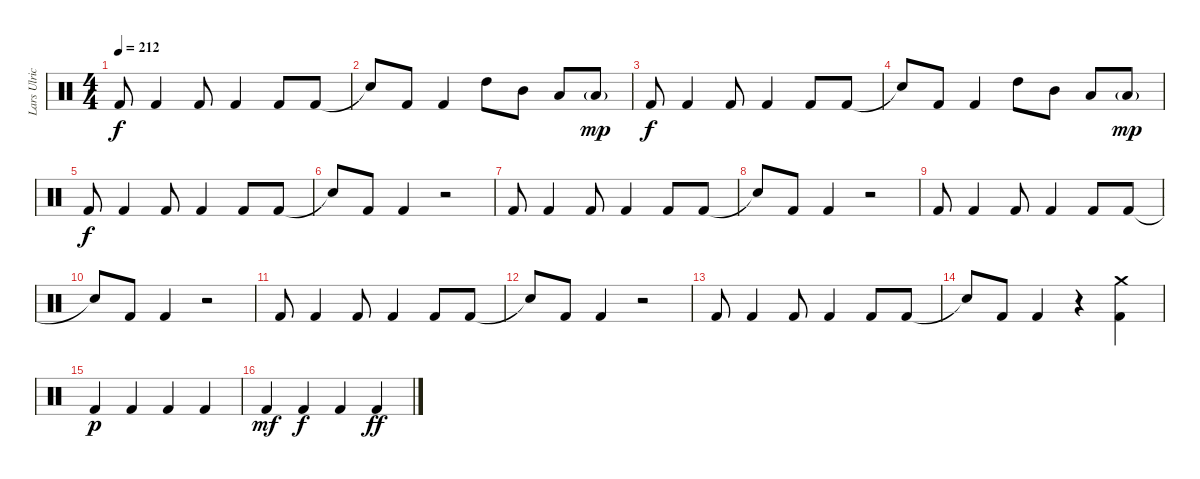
\track ("Lars Ulrich" "Lars Ulric") {instrument percussion}
\staff {score}
\articulation defaults
\ts (4 4)
\tempo 212
\clef neutral
\ks c "Kick (hit) 2".8{dy f} "Kick (hit) 2".4 "Kick (hit) 2".8 "Kick (hit) 2".4 "Kick (hit) 2".8 "Kick (hit) 2".8
|
"Snare (hit)"{t}.8 "Kick (hit) 2".8 "Kick (hit) 2".4 "High Tom (hit)".8 "Mid Tom (hit)".8 "Low Tom (hit)".8 "Low Tom (hit)"{g}.8{dy mp} |
"Kick (hit) 2".8{dy f} "Kick (hit) 2".4 "Kick (hit) 2".8 "Kick (hit) 2".4 "Kick (hit) 2".8 "Kick (hit) 2".8 |
"Snare (hit)"{t}.8 "Kick (hit) 2".8 "Kick (hit) 2".4 "High Tom (hit)".8 "Mid Tom (hit)".8 "Low Tom (hit)".8 "Low Tom (hit)"{g}.8{dy mp} |
"Kick (hit) 2".8{dy f} "Kick (hit) 2".4 "Kick (hit) 2".8 "Kick (hit) 2".4 "Kick (hit) 2".8 "Kick (hit) 2".8 |
"Snare (hit)"{t}.8 "Kick (hit) 2".8 "Kick (hit) 2".4 r.2 |
"Kick (hit) 2".8 "Kick (hit) 2".4 "Kick (hit) 2".8 "Kick (hit) 2".4 "Kick (hit) 2".8 "Kick (hit) 2".8 |
"Snare (hit)"{t}.8 "Kick (hit) 2".8 "Kick (hit) 2".4 r.2 |
"Kick (hit) 2".8 "Kick (hit) 2".4 "Kick (hit) 2".8 "Kick (hit) 2".4 "Kick (hit) 2".8 "Kick (hit) 2".8 |
"Snare (hit)"{t}.8 "Kick (hit) 2".8 "Kick (hit) 2".4 r.2 |
"Kick (hit) 2".8 "Kick (hit) 2".4 "Kick (hit) 2".8 "Kick (hit) 2".4 "Kick (hit) 2".8 "Kick (hit) 2".8 |
"Snare (hit)"{t}.8 "Kick (hit) 2".8 "Kick (hit) 2".4 r.2 |
"Kick (hit) 2".8 "Kick (hit) 2".4 "Kick (hit) 2".8 "Kick (hit) 2".4 "Kick (hit) 2".8 "Kick (hit) 2".8 |
"Snare (hit)"{t}.8 "Kick (hit) 2".8 "Kick (hit) 2".4 r.4 ("Crash medium (hit)" "Kick (hit) 2").4 |
"Kick (hit) 2".4{dy p} "Kick (hit) 2".4 "Kick (hit) 2".4 "Kick (hit) 2".4 |
"Kick (hit) 2".4{dy mf} "Kick (hit) 2".4{dy f} "Kick (hit) 2".4 "Kick (hit) 2".4{dy ff}
